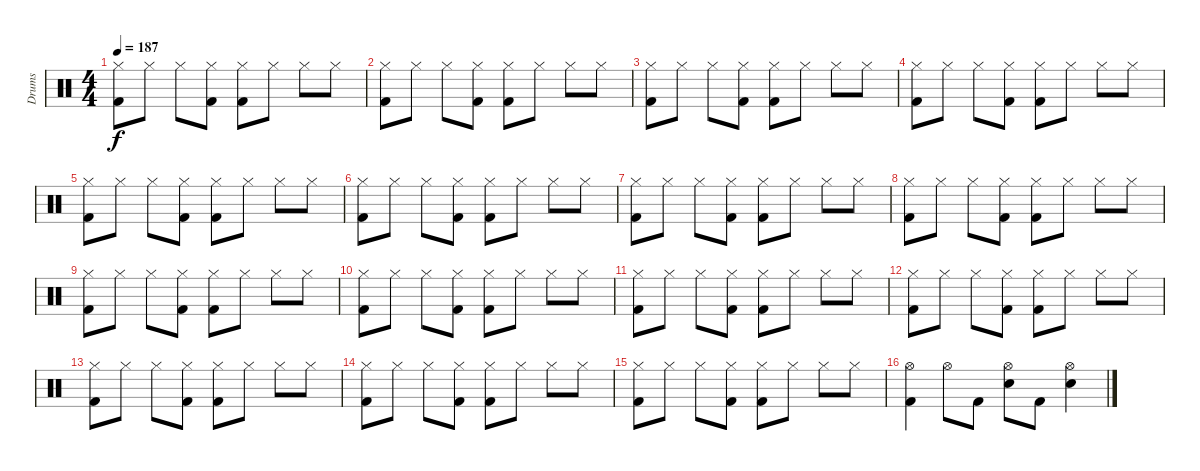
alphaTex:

\track ("Drums" "Drums") {instrument percussion}
\staff {score}
\articulation defaults
\ts (4 4)
\tempo 187
\clef neutral
\ks c
("Hi-Hat (closed)" "Kick (hit) 2").8{dy f} "Hi-Hat (closed)".8 "Hi-Hat (closed)".8 ("Hi-Hat (closed)" "Kick (hit) 2").8 ("Hi-Hat (closed)" "Kick (hit) 2").8 "Hi-Hat (closed)".8 "Hi-Hat (closed)".8 "Hi-Hat (closed)".8 |
("Hi-Hat (closed)" "Kick (hit) 2").8 "Hi-Hat (closed)".8 "Hi-Hat (closed)".8 ("Hi-Hat (closed)" "Kick (hit) 2").8 ("Hi-Hat (closed)" "Kick (hit) 2").8 "Hi-Hat (closed)".8 "Hi-Hat (closed)".8 "Hi-Hat (closed)".8 |
("Hi-Hat (closed)" "Kick (hit) 2").8 "Hi-Hat (closed)".8 "Hi-Hat (closed)".8 ("Hi-Hat (closed)" "Kick (hit) 2").8 ("Hi-Hat (closed)" "Kick (hit) 2").8 "Hi-Hat (closed)".8 "Hi-Hat (closed)".8 "Hi-Hat (closed)".8 |
("Hi-Hat (closed)" "Kick (hit) 2").8 "Hi-Hat (closed)".8 "Hi-Hat (closed)".8 ("Hi-Hat (closed)" "Kick (hit) 2").8 ("Hi-Hat (closed)" "Kick (hit) 2").8 "Hi-Hat (closed)".8 "Hi-Hat (closed)".8 "Hi-Hat (closed)".8 |
("Hi-Hat (closed)" "Kick (hit) 2").8 "Hi-Hat (closed)".8 "Hi-Hat (closed)".8 ("Hi-Hat (closed)" "Kick (hit) 2").8 ("Hi-Hat (closed)" "Kick (hit) 2").8 "Hi-Hat (closed)".8 "Hi-Hat (closed)".8 "Hi-Hat (closed)".8 |
("Hi-Hat (closed)" "Kick (hit) 2").8 "Hi-Hat (closed)".8 "Hi-Hat (closed)".8 ("Hi-Hat (closed)" "Kick (hit) 2").8 ("Hi-Hat (closed)" "Kick (hit) 2").8 "Hi-Hat (closed)".8 "Hi-Hat (closed)".8 "Hi-Hat (closed)".8 |
("Hi-Hat (closed)" "Kick (hit) 2").8 "Hi-Hat (closed)".8 "Hi-Hat (closed)".8 ("Hi-Hat (closed)" "Kick (hit) 2").8 ("Hi-Hat (closed)" "Kick (hit) 2").8 "Hi-Hat (closed)".8 "Hi-Hat (closed)".8 "Hi-Hat (closed)".8 |
("Hi-Hat (closed)" "Kick (hit) 2").8 "Hi-Hat (closed)".8 "Hi-Hat (closed)".8 ("Hi-Hat (closed)" "Kick (hit) 2").8 ("Hi-Hat (closed)" "Kick (hit) 2").8 "Hi-Hat (closed)".8 "Hi-Hat (closed)".8 "Hi-Hat (closed)".8 |
("Hi-Hat (closed)" "Kick (hit) 2").8 "Hi-Hat (closed)".8 "Hi-Hat (closed)".8 ("Hi-Hat (closed)" "Kick (hit) 2").8 ("Hi-Hat (closed)" "Kick (hit) 2").8 "Hi-Hat (closed)".8 "Hi-Hat (closed)".8 "Hi-Hat (closed)".8 |
("Hi-Hat (closed)" "Kick (hit) 2").8 "Hi-Hat (closed)".8 "Hi-Hat (closed)".8 ("Hi-Hat (closed)" "Kick (hit) 2").8 ("Hi-Hat (closed)" "Kick (hit) 2").8 "Hi-Hat (closed)".8 "Hi-Hat (closed)".8 "Hi-Hat (closed)".8 |
("Hi-Hat (closed)" "Kick (hit) 2").8 "Hi-Hat (closed)".8 "Hi-Hat (closed)".8 ("Hi-Hat (closed)" "Kick (hit) 2").8 ("Hi-Hat (closed)" "Kick (hit) 2").8 "Hi-Hat (closed)".8 "Hi-Hat (closed)".8 "Hi-Hat (closed)".8 |
("Hi-Hat (closed)" "Kick (hit) 2").8 "Hi-Hat (closed)".8 "Hi-Hat (closed)".8 ("Hi-Hat (closed)" "Kick (hit) 2").8 ("Hi-Hat (closed)" "Kick (hit) 2").8 "Hi-Hat (closed)".8 "Hi-Hat (closed)".8 "Hi-Hat (closed)".8 |
("Hi-Hat (closed)" "Kick (hit) 2").8 "Hi-Hat (closed)".8 "Hi-Hat (closed)".8 ("Hi-Hat (closed)" "Kick (hit) 2").8 ("Hi-Hat (closed)" "Kick (hit) 2").8 "Hi-Hat (closed)".8 "Hi-Hat (closed)".8 "Hi-Hat (closed)".8 |
("Hi-Hat (closed)" "Kick (hit) 2").8 "Hi-Hat (closed)".8 "Hi-Hat (closed)".8 ("Hi-Hat (closed)" "Kick (hit) 2").8 ("Hi-Hat (closed)" "Kick (hit) 2").8 "Hi-Hat (closed)".8 "Hi-Hat (closed)".8 "Hi-Hat (closed)".8 |
("Hi-Hat (closed)" "Kick (hit) 2").8 "Hi-Hat (closed)".8 "Hi-Hat (closed)".8 ("Hi-Hat (closed)" "Kick (hit) 2").8 ("Hi-Hat (closed)" "Kick (hit) 2").8 "Hi-Hat (closed)".8 "Hi-Hat (closed)".8 "Hi-Hat (closed)".8 |
("Hi-Hat (open)" "Kick (hit) 2").4 "Hi-Hat (open)".8 "Kick (hit) 2".8 ("Hi-Hat (open)" "Electric Snare (hit)").8 "Kick (hit) 2".8 ("Hi-Hat (open)" "Electric Snare (hit)").4
